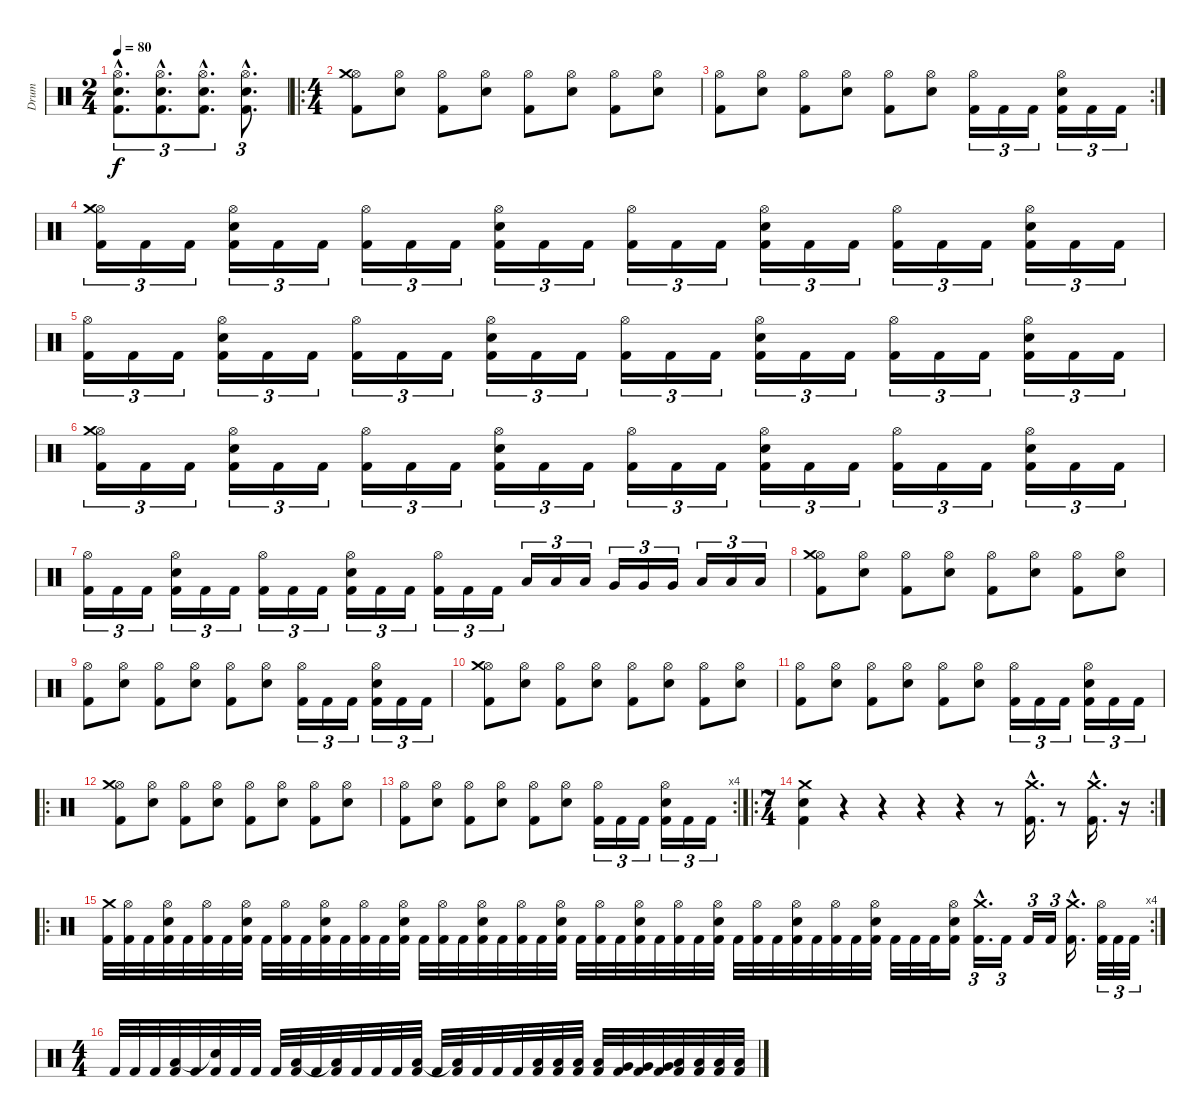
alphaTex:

\track ("Drum" "Drum") {instrument percussion}
\staff {score}
\articulation defaults
\ts (2 4)
\tempo 80
\clef neutral
\ks c
("Kick (hit) 2"{hac} "Snare (hit) 2"{hac} "Hi-Hat (open)"{hac}).8{d tu (3 2) dy f} ("Kick (hit) 2"{hac} "Snare (hit) 2"{hac} "Hi-Hat (open)"{hac}).8{d tu (3 2)} ("Kick (hit) 2"{hac} "Snare (hit) 2"{hac} "Hi-Hat (open)"{hac}).8{d tu (3 2)} ("Kick (hit) 2"{hac} "Snare (hit) 2"{hac} "Hi-Hat (open)"{hac}).8{d tu (3 2)} |
\ro
\ts (4 4)
("Hi-Hat (open)" "Kick (hit) 2" "Crash medium (hit)").8 ("Hi-Hat (open)" "Snare (hit) 2").8 ("Hi-Hat (open)" "Kick (hit) 2").8 ("Hi-Hat (open)" "Snare (hit) 2").8 ("Hi-Hat (open)" "Kick (hit) 2").8 ("Hi-Hat (open)" "Snare (hit) 2").8 ("Hi-Hat (open)" "Kick (hit) 2").8 ("Hi-Hat (open)" "Snare (hit) 2").8 |
\rc 2
("Hi-Hat (open)" "Kick (hit) 2").8 ("Hi-Hat (open)" "Snare (hit) 2").8 ("Hi-Hat (open)" "Kick (hit) 2").8 ("Hi-Hat (open)" "Snare (hit) 2").8 ("Hi-Hat (open)" "Kick (hit) 2").8 ("Hi-Hat (open)" "Snare (hit) 2").8 ("Hi-Hat (open)" "Kick (hit) 2").16{tu (3 2)} "Kick (hit) 2".16{tu (3 2)} "Kick (hit) 2".16{tu (3 2)} ("Hi-Hat (open)" "Kick (hit) 2" "Snare (hit) 2").16{tu (3 2)} "Kick (hit) 2".16{tu (3 2)} "Kick (hit) 2".16{tu (3 2)} |
("Hi-Hat (open)" "Kick (hit) 2" "Crash medium (hit)").16{tu (3 2)} "Kick (hit) 2".16{tu (3 2)} "Kick (hit) 2".16{tu (3 2)} ("Hi-Hat (open)" "Kick (hit) 2" "Snare (hit) 2").16{tu (3 2)} "Kick (hit) 2".16{tu (3 2)} "Kick (hit) 2".16{tu (3 2)} ("Hi-Hat (open)" "Kick (hit) 2").16{tu (3 2)} "Kick (hit) 2".16{tu (3 2)} "Kick (hit) 2".16{tu (3 2)} ("Hi-Hat (open)" "Kick (hit) 2" "Snare (hit) 2").16{tu (3 2)} "Kick (hit) 2".16{tu (3 2)} "Kick (hit) 2".16{tu (3 2)} ("Hi-Hat (open)" "Kick (hit) 2").16{tu (3 2)} "Kick (hit) 2".16{tu (3 2)} "Kick (hit) 2".16{tu (3 2)} ("Hi-Hat (open)" "Kick (hit) 2" "Snare (hit) 2").16{tu (3 2)} "Kick (hit) 2".16{tu (3 2)} "Kick (hit) 2".16{tu (3 2)} ("Hi-Hat (open)" "Kick (hit) 2").16{tu (3 2)} "Kick (hit) 2".16{tu (3 2)} "Kick (hit) 2".16{tu (3 2)} ("Hi-Hat (open)" "Kick (hit) 2" "Snare (hit) 2").16{tu (3 2)} "Kick (hit) 2".16{tu (3 2)} "Kick (hit) 2".16{tu (3 2)} |
("Hi-Hat (open)" "Kick (hit) 2").16{tu (3 2)} "Kick (hit) 2".16{tu (3 2)} "Kick (hit) 2".16{tu (3 2)} ("Hi-Hat (open)" "Kick (hit) 2" "Snare (hit) 2").16{tu (3 2)} "Kick (hit) 2".16{tu (3 2)} "Kick (hit) 2".16{tu (3 2)} ("Hi-Hat (open)" "Kick (hit) 2").16{tu (3 2)} "Kick (hit) 2".16{tu (3 2)} "Kick (hit) 2".16{tu (3 2)} ("Hi-Hat (open)" "Kick (hit) 2" "Snare (hit) 2").16{tu (3 2)} "Kick (hit) 2".16{tu (3 2)} "Kick (hit) 2".16{tu (3 2)} ("Hi-Hat (open)" "Kick (hit) 2").16{tu (3 2)} "Kick (hit) 2".16{tu (3 2)} "Kick (hit) 2".16{tu (3 2)} ("Hi-Hat (open)" "Kick (hit) 2" "Snare (hit) 2").16{tu (3 2)} "Kick (hit) 2".16{tu (3 2)} "Kick (hit) 2".16{tu (3 2)} ("Hi-Hat (open)" "Kick (hit) 2").16{tu (3 2)} "Kick (hit) 2".16{tu (3 2)} "Kick (hit) 2".16{tu (3 2)} ("Hi-Hat (open)" "Kick (hit) 2" "Snare (hit) 2").16{tu (3 2)} "Kick (hit) 2".16{tu (3 2)} "Kick (hit) 2".16{tu (3 2)} |
("Hi-Hat (open)" "Kick (hit) 2" "Crash medium (hit)").16{tu (3 2)} "Kick (hit) 2".16{tu (3 2)} "Kick (hit) 2".16{tu (3 2)} ("Hi-Hat (open)" "Kick (hit) 2" "Snare (hit) 2").16{tu (3 2)} "Kick (hit) 2".16{tu (3 2)} "Kick (hit) 2".16{tu (3 2)} ("Hi-Hat (open)" "Kick (hit) 2").16{tu (3 2)} "Kick (hit) 2".16{tu (3 2)} "Kick (hit) 2".16{tu (3 2)} ("Hi-Hat (open)" "Kick (hit) 2" "Snare (hit) 2").16{tu (3 2)} "Kick (hit) 2".16{tu (3 2)} "Kick (hit) 2".16{tu (3 2)} ("Hi-Hat (open)" "Kick (hit) 2").16{tu (3 2)} "Kick (hit) 2".16{tu (3 2)} "Kick (hit) 2".16{tu (3 2)} ("Hi-Hat (open)" "Kick (hit) 2" "Snare (hit) 2").16{tu (3 2)} "Kick (hit) 2".16{tu (3 2)} "Kick (hit) 2".16{tu (3 2)} ("Hi-Hat (open)" "Kick (hit) 2").16{tu (3 2)} "Kick (hit) 2".16{tu (3 2)} "Kick (hit) 2".16{tu (3 2)} ("Hi-Hat (open)" "Kick (hit) 2" "Snare (hit) 2").16{tu (3 2)} "Kick (hit) 2".16{tu (3 2)} "Kick (hit) 2".16{tu (3 2)} |
("Hi-Hat (open)" "Kick (hit) 2").16{tu (3 2)} "Kick (hit) 2".16{tu (3 2)} "Kick (hit) 2".16{tu (3 2)} ("Hi-Hat (open)" "Kick (hit) 2" "Snare (hit) 2").16{tu (3 2)} "Kick (hit) 2".16{tu (3 2)} "Kick (hit) 2".16{tu (3 2)} ("Hi-Hat (open)" "Kick (hit) 2").16{tu (3 2)} "Kick (hit) 2".16{tu (3 2)} "Kick (hit) 2".16{tu (3 2)} ("Hi-Hat (open)" "Kick (hit) 2" "Snare (hit) 2").16{tu (3 2)} "Kick (hit) 2".16{tu (3 2)} "Kick (hit) 2".16{tu (3 2)} ("Hi-Hat (open)" "Kick (hit) 2").16{tu (3 2)} "Kick (hit) 2".16{tu (3 2)} "Kick (hit) 2".16{tu (3 2)} "Low Tom (hit)".16{tu (3 2)} "Low Tom (hit)".16{tu (3 2)} "Low Tom (hit)".16{tu (3 2)} "Very Low Tom (hit)".16{tu (3 2)} "Very Low Tom (hit)".16{tu (3 2)} "Very Low Tom (hit)".16{tu (3 2)} "Low Floor Tom (hit)".16{tu (3 2)} "Low Floor Tom (hit)".16{tu (3 2)} "Low Floor Tom (hit)".16{tu (3 2)} |
("Hi-Hat (open)" "Kick (hit) 2" "Crash medium (hit)").8 ("Hi-Hat (open)" "Snare (hit) 2").8 ("Hi-Hat (open)" "Kick (hit) 2").8 ("Hi-Hat (open)" "Snare (hit) 2").8 ("Hi-Hat (open)" "Kick (hit) 2").8 ("Hi-Hat (open)" "Snare (hit) 2").8 ("Hi-Hat (open)" "Kick (hit) 2").8 ("Hi-Hat (open)" "Snare (hit) 2").8 |
("Hi-Hat (open)" "Kick (hit) 2").8 ("Hi-Hat (open)" "Snare (hit) 2").8 ("Hi-Hat (open)" "Kick (hit) 2").8 ("Hi-Hat (open)" "Snare (hit) 2").8 ("Hi-Hat (open)" "Kick (hit) 2").8 ("Hi-Hat (open)" "Snare (hit) 2").8 ("Hi-Hat (open)" "Kick (hit) 2").16{tu (3 2)} "Kick (hit) 2".16{tu (3 2)} "Kick (hit) 2".16{tu (3 2)} ("Hi-Hat (open)" "Kick (hit) 2" "Snare (hit) 2").16{tu (3 2)} "Kick (hit) 2".16{tu (3 2)} "Kick (hit) 2".16{tu (3 2)} |
("Hi-Hat (open)" "Kick (hit) 2" "Crash medium (hit)").8 ("Hi-Hat (open)" "Snare (hit) 2").8 ("Hi-Hat (open)" "Kick (hit) 2").8 ("Hi-Hat (open)" "Snare (hit) 2").8 ("Hi-Hat (open)" "Kick (hit) 2").8 ("Hi-Hat (open)" "Snare (hit) 2").8 ("Hi-Hat (open)" "Kick (hit) 2").8 ("Hi-Hat (open)" "Snare (hit) 2").8 |
("Hi-Hat (open)" "Kick (hit) 2").8 ("Hi-Hat (open)" "Snare (hit) 2").8 ("Hi-Hat (open)" "Kick (hit) 2").8 ("Hi-Hat (open)" "Snare (hit) 2").8 ("Hi-Hat (open)" "Kick (hit) 2").8 ("Hi-Hat (open)" "Snare (hit) 2").8 ("Hi-Hat (open)" "Kick (hit) 2").16{tu (3 2)} "Kick (hit) 2".16{tu (3 2)} "Kick (hit) 2".16{tu (3 2)} ("Hi-Hat (open)" "Kick (hit) 2" "Snare (hit) 2").16{tu (3 2)} "Kick (hit) 2".16{tu (3 2)} "Kick (hit) 2".16{tu (3 2)} |
\ro
("Hi-Hat (open)" "Kick (hit) 2" "Crash medium (hit)").8 ("Hi-Hat (open)" "Snare (hit) 2").8 ("Hi-Hat (open)" "Kick (hit) 2").8 ("Hi-Hat (open)" "Snare (hit) 2").8 ("Hi-Hat (open)" "Kick (hit) 2").8 ("Hi-Hat (open)" "Snare (hit) 2").8 ("Hi-Hat (open)" "Kick (hit) 2").8 ("Hi-Hat (open)" "Snare (hit) 2").8 |
\rc 4
("Hi-Hat (open)" "Kick (hit) 2").8 ("Hi-Hat (open)" "Snare (hit) 2").8 ("Hi-Hat (open)" "Kick (hit) 2").8 ("Hi-Hat (open)" "Snare (hit) 2").8 ("Hi-Hat (open)" "Kick (hit) 2").8 ("Hi-Hat (open)" "Snare (hit) 2").8 ("Hi-Hat (open)" "Kick (hit) 2").16{tu (3 2)} "Kick (hit) 2".16{tu (3 2)} "Kick (hit) 2".16{tu (3 2)} ("Hi-Hat (open)" "Kick (hit) 2" "Snare (hit) 2").16{tu (3 2)} "Kick (hit) 2".16{tu (3 2)} "Kick (hit) 2".16{tu (3 2)} |
\ro
\rc 2
\ts (7 4)
("Kick (hit) 2" "Snare (hit) 2" "Crash medium (hit)").4 r.4 r.4 r.4 r.4 r.8 ("Kick (hit) 2"{hac} "Crash medium (hit)"{hac}).16{d} r.8 ("Kick (hit) 2"{hac} "Crash medium (hit)"{hac}).16{d} r.16 |
\ro
\rc 4
("Kick (hit) 2" "Crash medium (hit)").32 ("Kick (hit) 2" "Hi-Hat (open)").32 "Kick (hit) 2".32 ("Kick (hit) 2" "Snare (hit) 2" "Hi-Hat (open)").32 "Kick (hit) 2".32 ("Kick (hit) 2" "Hi-Hat (open)").32 "Kick (hit) 2".32 ("Kick (hit) 2" "Snare (hit) 2" "Hi-Hat (open)").32 "Kick (hit) 2".32 ("Kick (hit) 2" "Hi-Hat (open)").32 "Kick (hit) 2".32 ("Kick (hit) 2" "Snare (hit) 2" "Hi-Hat (open)").32 "Kick (hit) 2".32 ("Kick (hit) 2" "Hi-Hat (open)").32 "Kick (hit) 2".32 ("Kick (hit) 2" "Snare (hit) 2" "Hi-Hat (open)").32 "Kick (hit) 2".32 ("Kick (hit) 2" "Hi-Hat (open)").32 "Kick (hit) 2".32 ("Kick (hit) 2" "Snare (hit) 2" "Hi-Hat (open)").32 "Kick (hit) 2".32 ("Kick (hit) 2" "Hi-Hat (open)").32 "Kick (hit) 2".32 ("Kick (hit) 2" "Snare (hit) 2" "Hi-Hat (open)").32 "Kick (hit) 2".32 ("Kick (hit) 2" "Hi-Hat (open)").32 "Kick (hit) 2".32 ("Kick (hit) 2" "Snare (hit) 2" "Hi-Hat (open)").32 "Kick (hit) 2".32 ("Kick (hit) 2" "Hi-Hat (open)").32 "Kick (hit) 2".32 ("Kick (hit) 2" "Snare (hit) 2" "Hi-Hat (open)").32 "Kick (hit) 2".32 ("Kick (hit) 2" "Hi-Hat (open)").32 "Kick (hit) 2".32 ("Kick (hit) 2" "Snare (hit) 2" "Hi-Hat (open)").32 "Kick (hit) 2".32 ("Kick (hit) 2" "Hi-Hat (open)").32 "Kick (hit) 2".32 ("Kick (hit) 2" "Snare (hit) 2" "Hi-Hat (open)").32 "Kick (hit) 2".32 "Kick (hit) 2".32 "Kick (hit) 2".32 ("Kick (hit) 2" "Snare (hit) 2" "Hi-Hat (open)").16 ("Kick (hit) 2"{hac} "Crash medium (hit)"{hac}).16{d tu (3 2)} "Kick (hit) 2".16{tu (3 2)} "Kick (hit) 2".16{tu (3 2)} "Kick (hit) 2".16{tu (3 2)} ("Kick (hit) 2"{hac} "Crash medium (hit)"{hac}).16{d} ("Kick (hit) 2" "Hi-Hat (open)").32{tu (3 2)} "Kick (hit) 2".32{tu (3 2)} "Kick (hit) 2".32{tu (3 2)} |
\ts (4 4)
"Kick (hit) 2".32 "Kick (hit) 2".32 "Kick (hit) 2".32 ("Kick (hit) 2" "Low Floor Tom (hit)").32 "Kick (hit) 2".32 ("Kick (hit) 2" "Snare (hit)"{t}).32 "Kick (hit) 2".32 "Kick (hit) 2".32 "Kick (hit) 2".32 ("Kick (hit) 2" "Low Floor Tom (hit)").32 "Kick (hit) 2".32 ("Kick (hit) 2" "Low Floor Tom (hit)"{t}).32 "Kick (hit) 2".32 "Kick (hit) 2".32 "Kick (hit) 2".32 ("Kick (hit) 2" "Low Floor Tom (hit)").32 "Kick (hit) 2".32 ("Kick (hit) 2" "Low Floor Tom (hit)"{t}).32 "Kick (hit) 2".32 "Kick (hit) 2".32 "Kick (hit) 2".32 ("Kick (hit) 2" "Low Floor Tom (hit)").32 ("Kick (hit) 2" "Low Tom (hit)").32 ("Kick (hit) 2" "Low Tom (hit)").32 ("Kick (hit) 2" "Low Tom (hit)").32 ("Kick (hit) 2" "Very Low Tom (hit)").32 ("Kick (hit) 2" "Very Low Tom (hit)").32 ("Kick (hit) 2" "Very Low Tom (hit)").32 ("Kick (hit) 2" "Low Floor Tom (hit)").32 ("Kick (hit) 2" "Low Floor Tom (hit)").32 ("Kick (hit) 2" "Low Floor Tom (hit)").32 ("Kick (hit) 2" "Low Floor Tom (hit)").32
